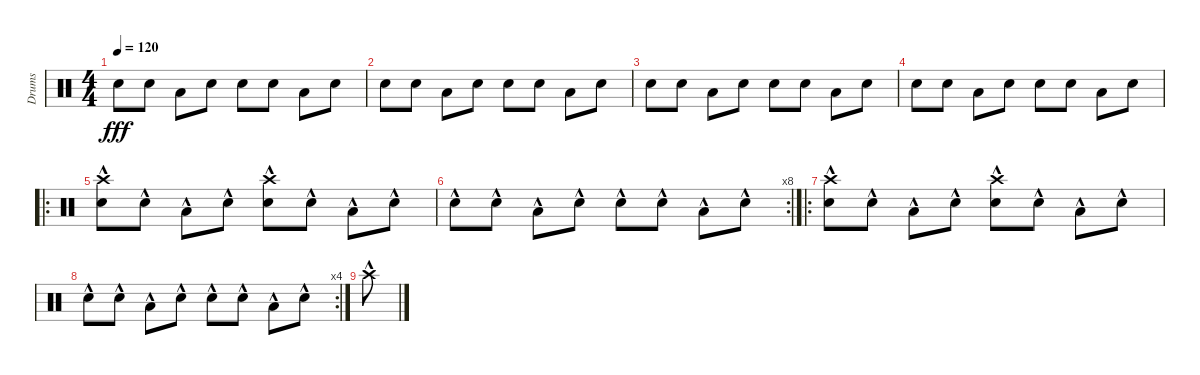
\track ("Drums" "Drums") {instrument percussion}
\staff {score}
\articulation defaults
\ts (4 4)
\tempo 120
\clef neutral
\ks c "Snare (hit)".8{dy fff} "Snare (hit)".8 "Low Tom (hit)".8 "Snare (hit)".8 "Snare (hit)".8 "Snare (hit)".8 "Low Tom (hit)".8 "Snare (hit)".8
|
"Snare (hit)".8 "Snare (hit)".8 "Low Tom (hit)".8 "Snare (hit)".8 "Snare (hit)".8 "Snare (hit)".8 "Low Tom (hit)".8 "Snare (hit)".8 |
"Snare (hit)".8 "Snare (hit)".8 "Low Tom (hit)".8 "Snare (hit)".8 "Snare (hit)".8 "Snare (hit)".8 "Low Tom (hit)".8 "Snare (hit)".8 |
"Snare (hit)".8 "Snare (hit)".8 "Low Tom (hit)".8 "Snare (hit)".8 "Snare (hit)".8 "Snare (hit)".8 "Low Tom (hit)".8 "Snare (hit)".8 |
\ro
("Crash high (hit)" "Snare (hit)"{hac}).8 "Snare (hit)"{hac}.8 "Low Tom (hit)"{hac}.8 "Snare (hit)"{hac}.8 ("Crash high (hit)"{hac} "Snare (hit)"{hac}).8 "Snare (hit)"{hac}.8 "Low Tom (hit)"{hac}.8 "Snare (hit)"{hac}.8 |
\rc 8 "Snare (hit)"{hac}.8 "Snare (hit)"{hac}.8 "Low Tom (hit)"{hac}.8 "Snare (hit)"{hac}.8 "Snare (hit)"{hac}.8 "Snare (hit)"{hac}.8 "Low Tom (hit)"{hac}.8 "Snare (hit)"{hac}.8
|
\ro
("Crash high (hit)" "Snare (hit)"{hac}).8 "Snare (hit)"{hac}.8 "Low Tom (hit)"{hac}.8 "Snare (hit)"{hac}.8 ("Crash high (hit)"{hac} "Snare (hit)"{hac}).8 "Snare (hit)"{hac}.8 "Low Tom (hit)"{hac}.8 "Snare (hit)"{hac}.8 |
\rc 4 "Snare (hit)"{hac}.8 "Snare (hit)"{hac}.8 "Low Tom (hit)"{hac}.8 "Snare (hit)"{hac}.8 "Snare (hit)"{hac}.8 "Snare (hit)"{hac}.8 "Low Tom (hit)"{hac}.8 "Snare (hit)"{hac}.8
|
"Crash high (hit)"{hac}.8
